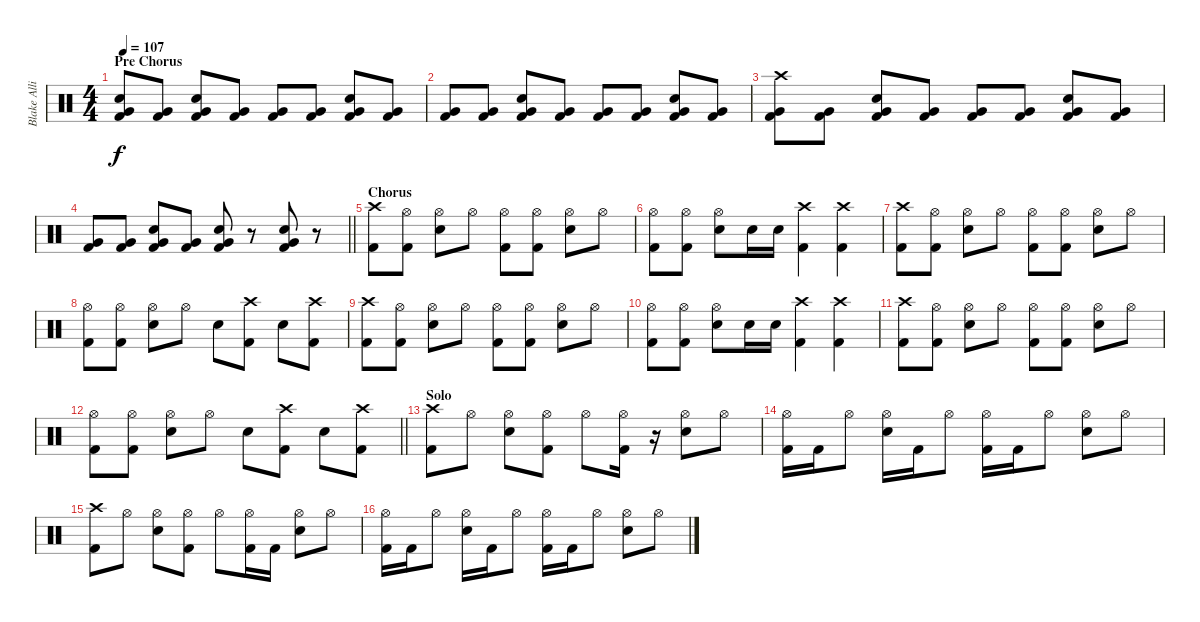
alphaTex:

\track ("Blake Allison" "Blake Alli") {instrument percussion}
\staff {score}
\articulation defaults
\ts (4 4)
\section ("" "Pre Chorus")
\tempo 107
\clef neutral
\ks c
("Electric Snare (hit)" "Very Low Tom (hit)" "Kick (hit) 2").8{dy f} ("Very Low Tom (hit)" "Kick (hit) 2").8 ("Electric Snare (hit)" "Very Low Tom (hit)" "Kick (hit) 2").8 ("Very Low Tom (hit)" "Kick (hit) 2").8 ("Very Low Tom (hit)" "Kick (hit) 2").8 ("Very Low Tom (hit)" "Kick (hit) 2").8 ("Electric Snare (hit)" "Very Low Tom (hit)" "Kick (hit) 2").8 ("Very Low Tom (hit)" "Kick (hit) 2").8 |
("Very Low Tom (hit)" "Kick (hit) 2").8 ("Very Low Tom (hit)" "Kick (hit) 2").8 ("Electric Snare (hit)" "Very Low Tom (hit)" "Kick (hit) 2").8 ("Very Low Tom (hit)" "Kick (hit) 2").8 ("Very Low Tom (hit)" "Kick (hit) 2").8 ("Very Low Tom (hit)" "Kick (hit) 2").8 ("Electric Snare (hit)" "Very Low Tom (hit)" "Kick (hit) 2").8 ("Very Low Tom (hit)" "Kick (hit) 2").8 |
("Crash high (hit)" "Very Low Tom (hit)" "Kick (hit) 2").8 ("Very Low Tom (hit)" "Kick (hit) 2").8 ("Electric Snare (hit)" "Very Low Tom (hit)" "Kick (hit) 2").8 ("Very Low Tom (hit)" "Kick (hit) 2").8 ("Very Low Tom (hit)" "Kick (hit) 2").8 ("Very Low Tom (hit)" "Kick (hit) 2").8 ("Electric Snare (hit)" "Very Low Tom (hit)" "Kick (hit) 2").8 ("Very Low Tom (hit)" "Kick (hit) 2").8 |
\barLineRight lightlight
("Very Low Tom (hit)" "Kick (hit) 2").8 ("Very Low Tom (hit)" "Kick (hit) 2").8 ("Electric Snare (hit)" "Very Low Tom (hit)" "Kick (hit) 2").8 ("Very Low Tom (hit)" "Kick (hit) 2").8 ("Electric Snare (hit)" "Very Low Tom (hit)" "Kick (hit) 2").8 r.8 ("Electric Snare (hit)" "Very Low Tom (hit)" "Kick (hit) 2").8 r.8 |
\section ("" "Chorus")
("Crash high (hit)" "Kick (hit) 2").8 ("Hi-Hat (open)" "Kick (hit) 2").8 ("Hi-Hat (open)" "Electric Snare (hit)").8 "Hi-Hat (open)".8 ("Hi-Hat (open)" "Kick (hit) 2").8 ("Hi-Hat (open)" "Kick (hit) 2").8 ("Hi-Hat (open)" "Electric Snare (hit)").8 "Hi-Hat (open)".8 |
("Hi-Hat (open)" "Kick (hit) 2").8 ("Hi-Hat (open)" "Kick (hit) 2").8 ("Hi-Hat (open)" "Electric Snare (hit)").8 "Electric Snare (hit)".16 "Electric Snare (hit)".16 ("Crash high (hit)" "Kick (hit) 2").4 ("Crash high (hit)" "Kick (hit) 2").4 |
("Crash high (hit)" "Kick (hit) 2").8 ("Hi-Hat (open)" "Kick (hit) 2").8 ("Hi-Hat (open)" "Electric Snare (hit)").8 "Hi-Hat (open)".8 ("Hi-Hat (open)" "Kick (hit) 2").8 ("Hi-Hat (open)" "Kick (hit) 2").8 ("Hi-Hat (open)" "Electric Snare (hit)").8 "Hi-Hat (open)".8 |
("Hi-Hat (open)" "Kick (hit) 2").8 ("Hi-Hat (open)" "Kick (hit) 2").8 ("Hi-Hat (open)" "Electric Snare (hit)").8 "Hi-Hat (open)".8 "Electric Snare (hit)".8 ("Crash high (hit)" "Kick (hit) 2").8 "Electric Snare (hit)".8 ("Crash high (hit)" "Kick (hit) 2").8 |
("Crash high (hit)" "Kick (hit) 2").8 ("Hi-Hat (open)" "Kick (hit) 2").8 ("Hi-Hat (open)" "Electric Snare (hit)").8 "Hi-Hat (open)".8 ("Hi-Hat (open)" "Kick (hit) 2").8 ("Hi-Hat (open)" "Kick (hit) 2").8 ("Hi-Hat (open)" "Electric Snare (hit)").8 "Hi-Hat (open)".8 |
("Hi-Hat (open)" "Kick (hit) 2").8 ("Hi-Hat (open)" "Kick (hit) 2").8 ("Hi-Hat (open)" "Electric Snare (hit)").8 "Electric Snare (hit)".16 "Electric Snare (hit)".16 ("Crash high (hit)" "Kick (hit) 2").4 ("Crash high (hit)" "Kick (hit) 2").4 |
("Crash high (hit)" "Kick (hit) 2").8 ("Hi-Hat (open)" "Kick (hit) 2").8 ("Hi-Hat (open)" "Electric Snare (hit)").8 "Hi-Hat (open)".8 ("Hi-Hat (open)" "Kick (hit) 2").8 ("Hi-Hat (open)" "Kick (hit) 2").8 ("Hi-Hat (open)" "Electric Snare (hit)").8 "Hi-Hat (open)".8 |
\barLineRight lightlight
("Hi-Hat (open)" "Kick (hit) 2").8 ("Hi-Hat (open)" "Kick (hit) 2").8 ("Hi-Hat (open)" "Electric Snare (hit)").8 "Hi-Hat (open)".8 "Electric Snare (hit)".8 ("Crash high (hit)" "Kick (hit) 2").8 "Electric Snare (hit)".8 ("Crash high (hit)" "Kick (hit) 2").8 |
\section ("" "Solo")
("Crash high (hit)" "Kick (hit) 2").8 "Hi-Hat (open)".8 ("Hi-Hat (open)" "Electric Snare (hit)").8 ("Hi-Hat (open)" "Kick (hit) 2").8 "Hi-Hat (open)".8 ("Hi-Hat (open)" "Kick (hit) 2").16 r.16 ("Hi-Hat (open)" "Electric Snare (hit)").8 "Hi-Hat (open)".8 |
("Hi-Hat (open)" "Kick (hit) 2").16 "Kick (hit) 2".16 "Hi-Hat (open)".8 ("Hi-Hat (open)" "Electric Snare (hit)").16 "Kick (hit) 2".16 "Hi-Hat (open)".8 ("Hi-Hat (open)" "Kick (hit) 2").16 "Kick (hit) 2".16 "Hi-Hat (open)".8 ("Hi-Hat (open)" "Electric Snare (hit)").8 "Hi-Hat (open)".8 |
("Crash high (hit)" "Kick (hit) 2").8 "Hi-Hat (open)".8 ("Hi-Hat (open)" "Electric Snare (hit)").8 ("Hi-Hat (open)" "Kick (hit) 2").8 "Hi-Hat (open)".8 ("Hi-Hat (open)" "Kick (hit) 2").16 "Kick (hit) 2".16 ("Hi-Hat (open)" "Electric Snare (hit)").8 "Hi-Hat (open)".8 |
("Hi-Hat (open)" "Kick (hit) 2").16 "Kick (hit) 2".16 "Hi-Hat (open)".8 ("Hi-Hat (open)" "Electric Snare (hit)").16 "Kick (hit) 2".16 "Hi-Hat (open)".8 ("Hi-Hat (open)" "Kick (hit) 2").16 "Kick (hit) 2".16 "Hi-Hat (open)".8 ("Hi-Hat (open)" "Electric Snare (hit)").8 "Hi-Hat (open)".8
